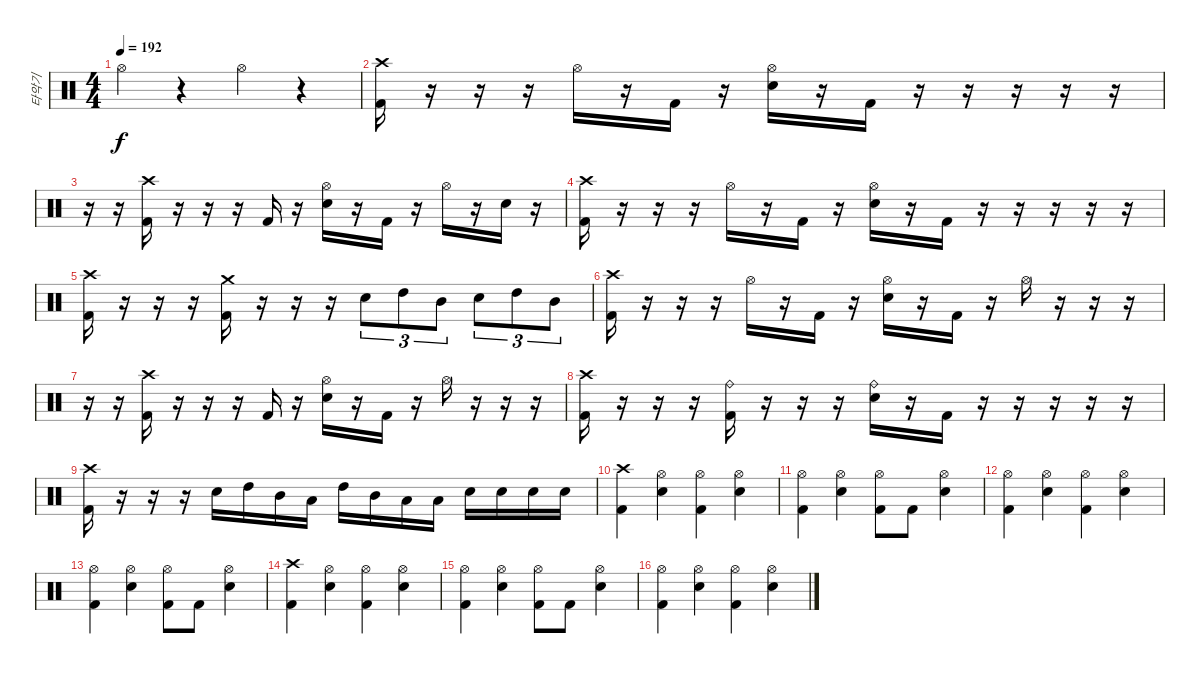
\track ("타악기" "타악기") {instrument percussion}
\staff {score}
\articulation defaults
\ts (4 4)
\tempo 192
\clef neutral
\ks c "Hi-Hat (open)".4{dy f}
r.4 "Hi-Hat (open)".4 r.4 |
("Crash high (hit)" "Kick (hit) 2").16 r.16 r.16 r.16 "Hi-Hat (open)".16 r.16 "Kick (hit) 2".16 r.16 ("Hi-Hat (open)" "Snare (hit) 2").16 r.16 "Kick (hit) 2".16 r.16 r.16 r.16 r.16 r.16 |
r.16 r.16 ("Crash high (hit)" "Kick (hit) 2").16 r.16 r.16 r.16 "Kick (hit) 2".16 r.16 ("Hi-Hat (open)" "Snare (hit) 2").16 r.16 "Kick (hit) 2".16 r.16 "Hi-Hat (open)".16 r.16 "Snare (hit) 2".16 r.16 |
("Crash high (hit)" "Kick (hit) 2").16 r.16 r.16 r.16 "Hi-Hat (open)".16 r.16 "Kick (hit) 2".16 r.16 ("Hi-Hat (open)" "Snare (hit) 2").16 r.16 "Kick (hit) 2".16 r.16 r.16 r.16 r.16 r.16 |
("Crash high (hit)" "Kick (hit) 2").16 r.16 r.16 r.16 ("Crash medium (hit)" "Kick (hit) 2").16 r.16 r.16 r.16 "Snare (hit) 2".8{tu (3 2)} "High Tom (hit)".8{tu (3 2)} "Mid Tom (hit)".8{tu (3 2)} "Snare (hit) 2".8{tu (3 2)} "High Tom (hit)".8{tu (3 2)} "Mid Tom (hit)".8{tu (3 2)} |
("Crash high (hit)" "Kick (hit) 2").16 r.16 r.16 r.16 "Hi-Hat (open)".16 r.16 "Kick (hit) 2".16 r.16 ("Hi-Hat (open)" "Snare (hit) 2").16 r.16 "Kick (hit) 2".16 r.16 "Hi-Hat (open)".16 r.16 r.16 r.16 |
r.16 r.16 ("Crash high (hit)" "Kick (hit) 2").16 r.16 r.16 r.16 "Kick (hit) 2".16 r.16 ("Hi-Hat (open)" "Snare (hit) 2").16 r.16 "Kick (hit) 2".16 r.16 "Hi-Hat (open)".16 r.16 r.16 r.16 |
("Crash high (hit)" "Kick (hit) 2").16 r.16 r.16 r.16 ("Ride (bell)" "Kick (hit) 2").16 r.16 r.16 r.16 ("Ride (bell)" "Snare (hit) 2").16 r.16 "Kick (hit) 2".16 r.16 r.16 r.16 r.16 r.16 |
("Crash high (hit)" "Kick (hit) 2").16 r.16 r.16 r.16 "Snare (hit) 2".16 "High Tom (hit)".16 "Mid Tom (hit)".16 "Low Tom (hit)".16 "High Tom (hit)".16 "Mid Tom (hit)".16 "Low Tom (hit)".16 "Low Tom (hit)".16 "Snare (hit) 2".16 "Snare (hit) 2".16 "Snare (hit) 2".16 "Snare (hit) 2".16 |
("Crash high (hit)" "Kick (hit) 2").4 ("Hi-Hat (open)" "Snare (hit) 2").4 ("Hi-Hat (open)" "Kick (hit) 2").4 ("Hi-Hat (open)" "Snare (hit) 2").4 |
("Hi-Hat (open)" "Kick (hit) 2").4 ("Hi-Hat (open)" "Snare (hit) 2").4 ("Hi-Hat (open)" "Kick (hit) 2").8 "Kick (hit) 2".8 ("Hi-Hat (open)" "Snare (hit) 2").4 |
("Hi-Hat (open)" "Kick (hit) 2").4 ("Hi-Hat (open)" "Snare (hit) 2").4 ("Hi-Hat (open)" "Kick (hit) 2").4 ("Hi-Hat (open)" "Snare (hit) 2").4 |
("Hi-Hat (open)" "Kick (hit) 2").4 ("Hi-Hat (open)" "Snare (hit) 2").4 ("Hi-Hat (open)" "Kick (hit) 2").8 "Kick (hit) 2".8 ("Hi-Hat (open)" "Snare (hit) 2").4 |
("Crash high (hit)" "Kick (hit) 2").4 ("Hi-Hat (open)" "Snare (hit) 2").4 ("Hi-Hat (open)" "Kick (hit) 2").4 ("Hi-Hat (open)" "Snare (hit) 2").4 |
("Hi-Hat (open)" "Kick (hit) 2").4 ("Hi-Hat (open)" "Snare (hit) 2").4 ("Hi-Hat (open)" "Kick (hit) 2").8 "Kick (hit) 2".8 ("Hi-Hat (open)" "Snare (hit) 2").4 |
("Hi-Hat (open)" "Kick (hit) 2").4 ("Hi-Hat (open)" "Snare (hit) 2").4 ("Hi-Hat (open)" "Kick (hit) 2").4 ("Hi-Hat (open)" "Snare (hit) 2").4
